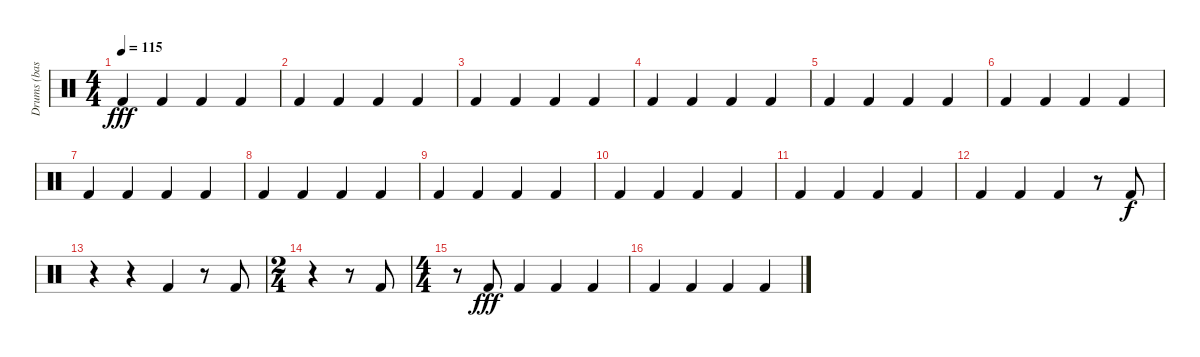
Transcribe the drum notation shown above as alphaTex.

\track ("Drums (bass drum)" "Drums (bas") {instrument percussion}
\staff {score}
\articulation defaults
\ts (4 4)
\tempo 115
\clef neutral
\ks c "Kick (hit) 2".4{dy fff} "Kick (hit) 2".4 "Kick (hit) 2".4 "Kick (hit) 2".4
|
"Kick (hit) 2".4 "Kick (hit) 2".4 "Kick (hit) 2".4 "Kick (hit) 2".4 |
"Kick (hit) 2".4 "Kick (hit) 2".4 "Kick (hit) 2".4 "Kick (hit) 2".4 |
"Kick (hit) 2".4 "Kick (hit) 2".4 "Kick (hit) 2".4 "Kick (hit) 2".4 |
"Kick (hit) 2".4 "Kick (hit) 2".4 "Kick (hit) 2".4 "Kick (hit) 2".4 |
"Kick (hit) 2".4 "Kick (hit) 2".4 "Kick (hit) 2".4 "Kick (hit) 2".4 |
"Kick (hit) 2".4 "Kick (hit) 2".4 "Kick (hit) 2".4 "Kick (hit) 2".4 |
"Kick (hit) 2".4 "Kick (hit) 2".4 "Kick (hit) 2".4 "Kick (hit) 2".4 |
"Kick (hit) 2".4 "Kick (hit) 2".4 "Kick (hit) 2".4 "Kick (hit) 2".4 |
"Kick (hit) 2".4 "Kick (hit) 2".4 "Kick (hit) 2".4 "Kick (hit) 2".4 |
"Kick (hit) 2".4 "Kick (hit) 2".4 "Kick (hit) 2".4 "Kick (hit) 2".4 |
"Kick (hit) 2".4 "Kick (hit) 2".4 "Kick (hit) 2".4 r.8 "Kick (hit) 2".8{dy f} |
r.4 r.4 "Kick (hit) 2".4 r.8 "Kick (hit) 2".8 |
\ts (2 4)
r.4 r.8 "Kick (hit) 2".8 |
\ts (4 4)
r.8 "Kick (hit) 2".8{dy fff} "Kick (hit) 2".4 "Kick (hit) 2".4 "Kick (hit) 2".4 |
"Kick (hit) 2".4 "Kick (hit) 2".4 "Kick (hit) 2".4 "Kick (hit) 2".4
